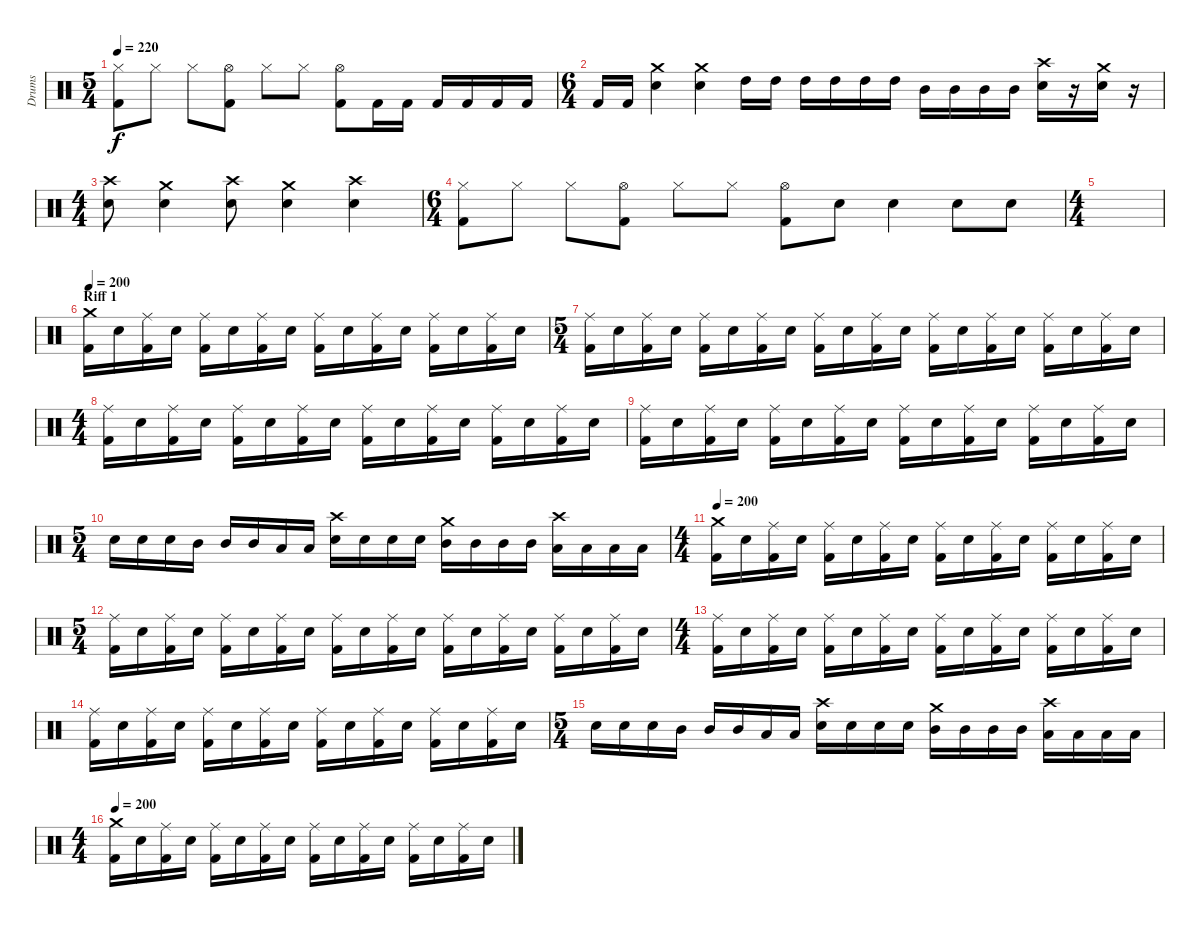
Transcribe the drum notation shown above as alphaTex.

\track ("Drums" "Drums") {instrument percussion}
\staff {score}
\articulation defaults
\ts (5 4)
\tempo 220
\clef neutral
\ks c
("Hi-Hat (closed)" "Kick (hit) 2").8{dy f} "Hi-Hat (closed)".8 "Hi-Hat (closed)".8 ("Hi-Hat (open)" "Kick (hit) 2").8 "Hi-Hat (closed)".8 "Hi-Hat (closed)".8 ("Hi-Hat (open)" "Kick (hit) 2").8 "Kick (hit) 2".16 "Kick (hit) 2".16 "Kick (hit) 2".16 "Kick (hit) 2".16 "Kick (hit) 2".16 "Kick (hit) 2".16 |
\ts (6 4)
"Kick (hit) 2".16 "Kick (hit) 2".16 ("Crash medium (hit)" "Electric Snare (hit)").4 ("Crash medium (hit)" "Electric Snare (hit)").4 "High Tom (hit)".16 "High Tom (hit)".16 "High Tom (hit)".16 "High Tom (hit)".16 "High Tom (hit)".16 "High Tom (hit)".16 "Mid Tom (hit)".16 "Mid Tom (hit)".16 "Mid Tom (hit)".16 "Mid Tom (hit)".16 ("Crash high (hit)" "Electric Snare (hit)").16 r.16 ("Crash medium (hit)" "Electric Snare (hit)").16 r.16 |
\ts (4 4)
("Crash high (hit)" "Electric Snare (hit)").8 ("Crash medium (hit)" "Electric Snare (hit)").4 ("Crash high (hit)" "Electric Snare (hit)").8 ("Crash medium (hit)" "Electric Snare (hit)").4 ("Crash high (hit)" "Electric Snare (hit)").4 |
\ts (6 4)
("Hi-Hat (closed)" "Kick (hit) 2").8 "Hi-Hat (closed)".8 "Hi-Hat (closed)".8 ("Hi-Hat (open)" "Kick (hit) 2").8 "Hi-Hat (closed)".8 "Hi-Hat (closed)".8 ("Hi-Hat (open)" "Kick (hit) 2").8 "Electric Snare (hit)".8 "Electric Snare (hit)".4 "Electric Snare (hit)".8 "Electric Snare (hit)".8 |
\ts (4 4)
|
\section ("" "Riff 1")
\tempo 200
("Crash medium (hit)" "Kick (hit) 2").16 "Electric Snare (hit)".16 ("Ride (middle)" "Kick (hit) 2").16 "Electric Snare (hit)".16 ("Ride (middle)" "Kick (hit) 2").16 "Electric Snare (hit)".16 ("Ride (middle)" "Kick (hit) 2").16 "Electric Snare (hit)".16 ("Ride (middle)" "Kick (hit) 2").16 "Electric Snare (hit)".16 ("Ride (middle)" "Kick (hit) 2").16 "Electric Snare (hit)".16 ("Ride (middle)" "Kick (hit) 2").16 "Electric Snare (hit)".16 ("Ride (middle)" "Kick (hit) 2").16 "Electric Snare (hit)".16 |
\ts (5 4)
("Ride (middle)" "Kick (hit) 2").16 "Electric Snare (hit)".16 ("Ride (middle)" "Kick (hit) 2").16 "Electric Snare (hit)".16 ("Ride (middle)" "Kick (hit) 2").16 "Electric Snare (hit)".16 ("Ride (middle)" "Kick (hit) 2").16 "Electric Snare (hit)".16 ("Ride (middle)" "Kick (hit) 2").16 "Electric Snare (hit)".16 ("Ride (middle)" "Kick (hit) 2").16 "Electric Snare (hit)".16 ("Ride (middle)" "Kick (hit) 2").16 "Electric Snare (hit)".16 ("Ride (middle)" "Kick (hit) 2").16 "Electric Snare (hit)".16 ("Ride (middle)" "Kick (hit) 2").16 "Electric Snare (hit)".16 ("Ride (middle)" "Kick (hit) 2").16 "Electric Snare (hit)".16 |
\ts (4 4)
("Ride (middle)" "Kick (hit) 2").16 "Electric Snare (hit)".16 ("Ride (middle)" "Kick (hit) 2").16 "Electric Snare (hit)".16 ("Ride (middle)" "Kick (hit) 2").16 "Electric Snare (hit)".16 ("Ride (middle)" "Kick (hit) 2").16 "Electric Snare (hit)".16 ("Ride (middle)" "Kick (hit) 2").16 "Electric Snare (hit)".16 ("Ride (middle)" "Kick (hit) 2").16 "Electric Snare (hit)".16 ("Ride (middle)" "Kick (hit) 2").16 "Electric Snare (hit)".16 ("Ride (middle)" "Kick (hit) 2").16 "Electric Snare (hit)".16 |
("Ride (middle)" "Kick (hit) 2").16 "Electric Snare (hit)".16 ("Ride (middle)" "Kick (hit) 2").16 "Electric Snare (hit)".16 ("Ride (middle)" "Kick (hit) 2").16 "Electric Snare (hit)".16 ("Ride (middle)" "Kick (hit) 2").16 "Electric Snare (hit)".16 ("Ride (middle)" "Kick (hit) 2").16 "Electric Snare (hit)".16 ("Ride (middle)" "Kick (hit) 2").16 "Electric Snare (hit)".16 ("Ride (middle)" "Kick (hit) 2").16 "Electric Snare (hit)".16 ("Ride (middle)" "Kick (hit) 2").16 "Electric Snare (hit)".16 |
\ts (5 4)
"Electric Snare (hit)".16 "Electric Snare (hit)".16 "Electric Snare (hit)".16 "Mid Tom (hit)".16 "Mid Tom (hit)".16 "Mid Tom (hit)".16 "Low Tom (hit)".16 "Low Tom (hit)".16 ("Crash high (hit)" "Electric Snare (hit)").16 "Electric Snare (hit)".16 "Electric Snare (hit)".16 "Electric Snare (hit)".16 ("Crash medium (hit)" "Mid Tom (hit)").16 "Mid Tom (hit)".16 "Mid Tom (hit)".16 "Mid Tom (hit)".16 ("Crash high (hit)" "Low Tom (hit)").16 "Low Tom (hit)".16 "Low Tom (hit)".16 "Low Tom (hit)".16 |
\ts (4 4)
\tempo 200
("Crash medium (hit)" "Kick (hit) 2").16 "Electric Snare (hit)".16 ("Ride (middle)" "Kick (hit) 2").16 "Electric Snare (hit)".16 ("Ride (middle)" "Kick (hit) 2").16 "Electric Snare (hit)".16 ("Ride (middle)" "Kick (hit) 2").16 "Electric Snare (hit)".16 ("Ride (middle)" "Kick (hit) 2").16 "Electric Snare (hit)".16 ("Ride (middle)" "Kick (hit) 2").16 "Electric Snare (hit)".16 ("Ride (middle)" "Kick (hit) 2").16 "Electric Snare (hit)".16 ("Ride (middle)" "Kick (hit) 2").16 "Electric Snare (hit)".16 |
\ts (5 4)
("Ride (middle)" "Kick (hit) 2").16 "Electric Snare (hit)".16 ("Ride (middle)" "Kick (hit) 2").16 "Electric Snare (hit)".16 ("Ride (middle)" "Kick (hit) 2").16 "Electric Snare (hit)".16 ("Ride (middle)" "Kick (hit) 2").16 "Electric Snare (hit)".16 ("Ride (middle)" "Kick (hit) 2").16 "Electric Snare (hit)".16 ("Ride (middle)" "Kick (hit) 2").16 "Electric Snare (hit)".16 ("Ride (middle)" "Kick (hit) 2").16 "Electric Snare (hit)".16 ("Ride (middle)" "Kick (hit) 2").16 "Electric Snare (hit)".16 ("Ride (middle)" "Kick (hit) 2").16 "Electric Snare (hit)".16 ("Ride (middle)" "Kick (hit) 2").16 "Electric Snare (hit)".16 |
\ts (4 4)
("Ride (middle)" "Kick (hit) 2").16 "Electric Snare (hit)".16 ("Ride (middle)" "Kick (hit) 2").16 "Electric Snare (hit)".16 ("Ride (middle)" "Kick (hit) 2").16 "Electric Snare (hit)".16 ("Ride (middle)" "Kick (hit) 2").16 "Electric Snare (hit)".16 ("Ride (middle)" "Kick (hit) 2").16 "Electric Snare (hit)".16 ("Ride (middle)" "Kick (hit) 2").16 "Electric Snare (hit)".16 ("Ride (middle)" "Kick (hit) 2").16 "Electric Snare (hit)".16 ("Ride (middle)" "Kick (hit) 2").16 "Electric Snare (hit)".16 |
("Ride (middle)" "Kick (hit) 2").16 "Electric Snare (hit)".16 ("Ride (middle)" "Kick (hit) 2").16 "Electric Snare (hit)".16 ("Ride (middle)" "Kick (hit) 2").16 "Electric Snare (hit)".16 ("Ride (middle)" "Kick (hit) 2").16 "Electric Snare (hit)".16 ("Ride (middle)" "Kick (hit) 2").16 "Electric Snare (hit)".16 ("Ride (middle)" "Kick (hit) 2").16 "Electric Snare (hit)".16 ("Ride (middle)" "Kick (hit) 2").16 "Electric Snare (hit)".16 ("Ride (middle)" "Kick (hit) 2").16 "Electric Snare (hit)".16 |
\ts (5 4)
"Electric Snare (hit)".16 "Electric Snare (hit)".16 "Electric Snare (hit)".16 "Mid Tom (hit)".16 "Mid Tom (hit)".16 "Mid Tom (hit)".16 "Low Tom (hit)".16 "Low Tom (hit)".16 ("Crash high (hit)" "Electric Snare (hit)").16 "Electric Snare (hit)".16 "Electric Snare (hit)".16 "Electric Snare (hit)".16 ("Crash medium (hit)" "Mid Tom (hit)").16 "Mid Tom (hit)".16 "Mid Tom (hit)".16 "Mid Tom (hit)".16 ("Crash high (hit)" "Low Tom (hit)").16 "Low Tom (hit)".16 "Low Tom (hit)".16 "Low Tom (hit)".16 |
\ts (4 4)
\tempo 200
("Crash medium (hit)" "Kick (hit) 2").16 "Electric Snare (hit)".16 ("Ride (middle)" "Kick (hit) 2").16 "Electric Snare (hit)".16 ("Ride (middle)" "Kick (hit) 2").16 "Electric Snare (hit)".16 ("Ride (middle)" "Kick (hit) 2").16 "Electric Snare (hit)".16 ("Ride (middle)" "Kick (hit) 2").16 "Electric Snare (hit)".16 ("Ride (middle)" "Kick (hit) 2").16 "Electric Snare (hit)".16 ("Ride (middle)" "Kick (hit) 2").16 "Electric Snare (hit)".16 ("Ride (middle)" "Kick (hit) 2").16 "Electric Snare (hit)".16
